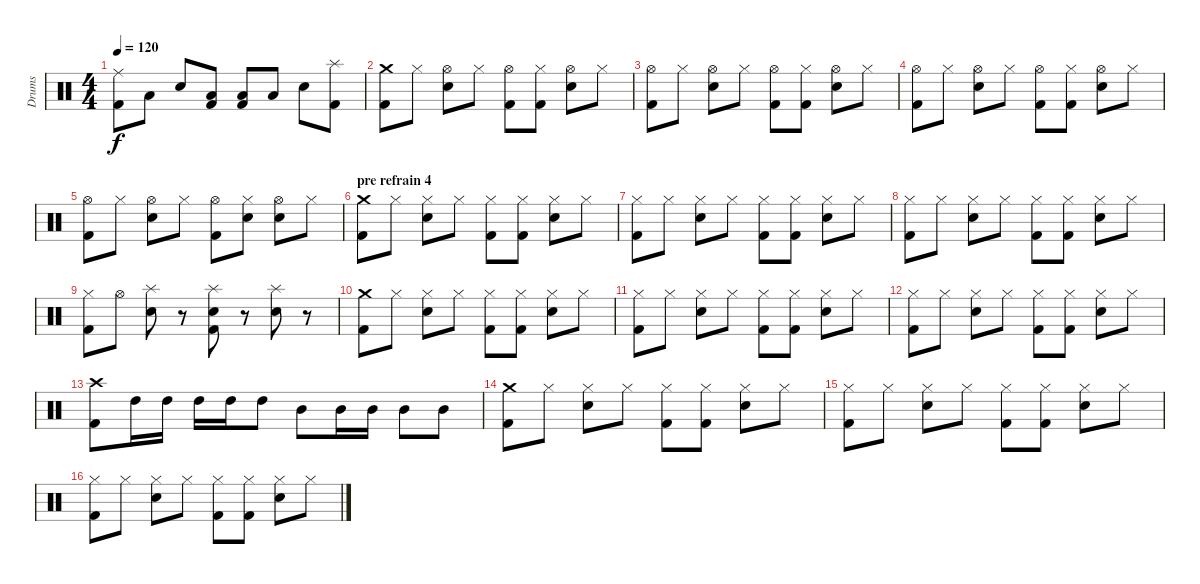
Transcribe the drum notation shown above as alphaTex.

\track ("Drums" "Drums") {instrument percussion}
\staff {score}
\articulation defaults
\ts (4 4)
\tempo 120
\clef neutral
\ks c
("Ride (middle)" "Kick (hit) 2").8{dy f} "Low Tom (hit)".8 "Snare (hit) 2".8 ("Low Tom (hit)" "Kick (hit) 2").8 ("Low Tom (hit)" "Kick (hit) 2").8 "Low Tom (hit)".8 "Snare (hit) 2".8 ("Splash (hit)" "Kick (hit) 2").8 |
("Crash medium (hit)" "Kick (hit) 2").8 "Hi-Hat (closed)".8 ("Hi-Hat (open)" "Snare (hit) 2").8 "Hi-Hat (closed)".8 ("Hi-Hat (open)" "Kick (hit) 2").8 ("Hi-Hat (closed)" "Kick (hit) 2").8 ("Hi-Hat (open)" "Snare (hit) 2").8 "Hi-Hat (closed)".8 |
("Hi-Hat (open)" "Kick (hit) 2").8 "Hi-Hat (closed)".8 ("Hi-Hat (open)" "Snare (hit) 2").8 "Hi-Hat (closed)".8 ("Hi-Hat (open)" "Kick (hit) 2").8 ("Hi-Hat (closed)" "Kick (hit) 2").8 ("Hi-Hat (open)" "Snare (hit) 2").8 "Hi-Hat (closed)".8 |
("Hi-Hat (open)" "Kick (hit) 2").8 "Hi-Hat (closed)".8 ("Hi-Hat (open)" "Snare (hit) 2").8 "Hi-Hat (closed)".8 ("Hi-Hat (open)" "Kick (hit) 2").8 ("Hi-Hat (closed)" "Kick (hit) 2").8 ("Hi-Hat (open)" "Snare (hit) 2").8 "Hi-Hat (closed)".8 |
("Hi-Hat (open)" "Kick (hit) 2").8 "Hi-Hat (closed)".8 ("Hi-Hat (open)" "Snare (hit) 2").8 "Hi-Hat (closed)".8 ("Hi-Hat (open)" "Kick (hit) 2").8 ("Hi-Hat (closed)" "Snare (hit) 2").8 ("Hi-Hat (open)" "Snare (hit) 2").8 "Hi-Hat (closed)".8 |
\section ("" "pre refrain 4")
("Crash medium (hit)" "Kick (hit) 2").8 "Hi-Hat (closed)".8 ("Hi-Hat (closed)" "Snare (hit) 2").8 "Hi-Hat (closed)".8 ("Hi-Hat (closed)" "Kick (hit) 2").8 ("Hi-Hat (closed)" "Kick (hit) 2").8 ("Hi-Hat (closed)" "Snare (hit) 2").8 "Hi-Hat (closed)".8 |
("Hi-Hat (closed)" "Kick (hit) 2").8 "Hi-Hat (closed)".8 ("Hi-Hat (closed)" "Snare (hit) 2").8 "Hi-Hat (closed)".8 ("Hi-Hat (closed)" "Kick (hit) 2").8 ("Hi-Hat (closed)" "Kick (hit) 2").8 ("Hi-Hat (closed)" "Snare (hit) 2").8 "Hi-Hat (closed)".8 |
("Hi-Hat (closed)" "Kick (hit) 2").8 "Hi-Hat (closed)".8 ("Hi-Hat (closed)" "Snare (hit) 2").8 "Hi-Hat (closed)".8 ("Hi-Hat (closed)" "Kick (hit) 2").8 ("Hi-Hat (closed)" "Kick (hit) 2").8 ("Hi-Hat (closed)" "Snare (hit) 2").8 "Hi-Hat (closed)".8 |
("Hi-Hat (closed)" "Kick (hit) 2").8 "Hi-Hat (open)".8 ("Splash (hit)" "Snare (hit) 2").8 r.8 ("Splash (hit)" "Snare (hit) 2" "Kick (hit) 2").8 r.8 ("Splash (hit)" "Snare (hit) 2").8 r.8 |
("Crash medium (hit)" "Kick (hit) 2").8 "Hi-Hat (closed)".8 ("Hi-Hat (closed)" "Snare (hit) 2").8 "Hi-Hat (closed)".8 ("Hi-Hat (closed)" "Kick (hit) 2").8 ("Hi-Hat (closed)" "Kick (hit) 2").8 ("Hi-Hat (closed)" "Snare (hit) 2").8 "Hi-Hat (closed)".8 |
("Hi-Hat (closed)" "Kick (hit) 2").8 "Hi-Hat (closed)".8 ("Hi-Hat (closed)" "Snare (hit) 2").8 "Hi-Hat (closed)".8 ("Hi-Hat (closed)" "Kick (hit) 2").8 ("Hi-Hat (closed)" "Kick (hit) 2").8 ("Hi-Hat (closed)" "Snare (hit) 2").8 "Hi-Hat (closed)".8 |
("Hi-Hat (closed)" "Kick (hit) 2").8 "Hi-Hat (closed)".8 ("Hi-Hat (closed)" "Snare (hit) 2").8 "Hi-Hat (closed)".8 ("Hi-Hat (closed)" "Kick (hit) 2").8 ("Hi-Hat (closed)" "Kick (hit) 2").8 ("Hi-Hat (closed)" "Snare (hit) 2").8 "Hi-Hat (closed)".8 |
("Crash high (hit)" "Kick (hit) 2").8 "High Tom (hit)".16 "High Tom (hit)".16 "High Tom (hit)".16 "High Tom (hit)".16 "High Tom (hit)".8 "Mid Tom (hit)".8 "Mid Tom (hit)".16 "Mid Tom (hit)".16 "Mid Tom (hit)".8 "Mid Tom (hit)".8 |
("Crash medium (hit)" "Kick (hit) 2").8 "Hi-Hat (closed)".8 ("Hi-Hat (closed)" "Snare (hit) 2").8 "Hi-Hat (closed)".8 ("Hi-Hat (closed)" "Kick (hit) 2").8 ("Hi-Hat (closed)" "Kick (hit) 2").8 ("Hi-Hat (closed)" "Snare (hit) 2").8 "Hi-Hat (closed)".8 |
("Hi-Hat (closed)" "Kick (hit) 2").8 "Hi-Hat (closed)".8 ("Hi-Hat (closed)" "Snare (hit) 2").8 "Hi-Hat (closed)".8 ("Hi-Hat (closed)" "Kick (hit) 2").8 ("Hi-Hat (closed)" "Kick (hit) 2").8 ("Hi-Hat (closed)" "Snare (hit) 2").8 "Hi-Hat (closed)".8 |
("Hi-Hat (closed)" "Kick (hit) 2").8 "Hi-Hat (closed)".8 ("Hi-Hat (closed)" "Snare (hit) 2").8 "Hi-Hat (closed)".8 ("Hi-Hat (closed)" "Kick (hit) 2").8 ("Hi-Hat (closed)" "Kick (hit) 2").8 ("Hi-Hat (closed)" "Snare (hit) 2").8 "Hi-Hat (closed)".8
